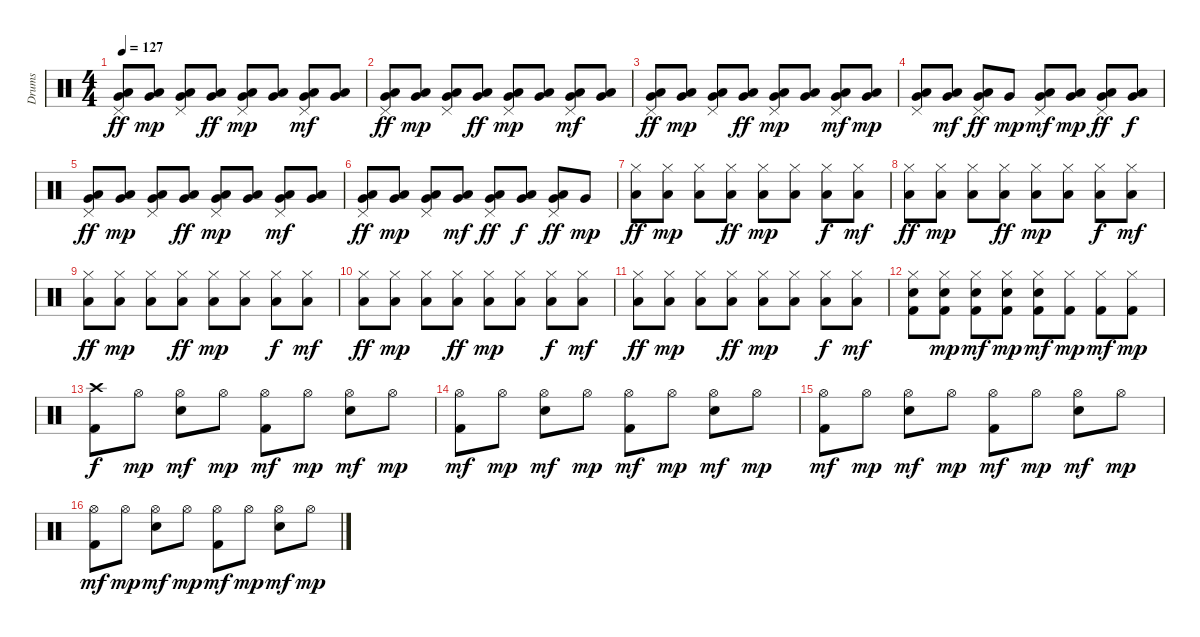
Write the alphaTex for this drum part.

\track ("Drums" "Drums") {instrument percussion}
\staff {score}
\articulation defaults
\ts (4 4)
\tempo 127
\clef neutral
\ks c
("Pedal Hi-Hat (hit)" "Very Low Tom (hit)" "Low Floor Tom (hit)").8{dy ff} ("Very Low Tom (hit)" "Low Floor Tom (hit)").8{dy mp} ("Pedal Hi-Hat (hit)" "Very Low Tom (hit)" "Low Floor Tom (hit)").8 ("Very Low Tom (hit)" "Low Floor Tom (hit)").8{dy ff} ("Pedal Hi-Hat (hit)" "Very Low Tom (hit)" "Low Floor Tom (hit)").8{dy mp} ("Very Low Tom (hit)" "Low Floor Tom (hit)").8 ("Pedal Hi-Hat (hit)" "Very Low Tom (hit)" "Low Floor Tom (hit)").8{dy mf} ("Very Low Tom (hit)" "Low Floor Tom (hit)").8 |
("Pedal Hi-Hat (hit)" "Very Low Tom (hit)" "Low Floor Tom (hit)").8{dy ff} ("Very Low Tom (hit)" "Low Floor Tom (hit)").8{dy mp} ("Pedal Hi-Hat (hit)" "Very Low Tom (hit)" "Low Floor Tom (hit)").8 ("Very Low Tom (hit)" "Low Floor Tom (hit)").8{dy ff} ("Pedal Hi-Hat (hit)" "Very Low Tom (hit)" "Low Floor Tom (hit)").8{dy mp} ("Very Low Tom (hit)" "Low Floor Tom (hit)").8 ("Pedal Hi-Hat (hit)" "Very Low Tom (hit)" "Low Floor Tom (hit)").8{dy mf} ("Very Low Tom (hit)" "Low Floor Tom (hit)").8 |
("Pedal Hi-Hat (hit)" "Very Low Tom (hit)" "Low Floor Tom (hit)").8{dy ff} ("Very Low Tom (hit)" "Low Floor Tom (hit)").8{dy mp} ("Pedal Hi-Hat (hit)" "Very Low Tom (hit)" "Low Floor Tom (hit)").8 ("Very Low Tom (hit)" "Low Floor Tom (hit)").8{dy ff} ("Pedal Hi-Hat (hit)" "Very Low Tom (hit)" "Low Floor Tom (hit)").8{dy mp} ("Very Low Tom (hit)" "Low Floor Tom (hit)").8 ("Pedal Hi-Hat (hit)" "Very Low Tom (hit)" "Low Floor Tom (hit)").8{dy mf} ("Very Low Tom (hit)" "Low Floor Tom (hit)").8{dy mp} |
("Pedal Hi-Hat (hit)" "Very Low Tom (hit)" "Low Floor Tom (hit)").8 ("Very Low Tom (hit)" "Low Floor Tom (hit)").8{dy mf} ("Pedal Hi-Hat (hit)" "Very Low Tom (hit)" "Low Floor Tom (hit)").8{dy ff} "Very Low Tom (hit)".8{dy mp} ("Pedal Hi-Hat (hit)" "Very Low Tom (hit)" "Low Floor Tom (hit)").8{dy mf} ("Very Low Tom (hit)" "Low Floor Tom (hit)").8{dy mp} ("Pedal Hi-Hat (hit)" "Very Low Tom (hit)" "Low Floor Tom (hit)").8{dy ff} ("Very Low Tom (hit)" "Low Floor Tom (hit)").8{dy f} |
("Pedal Hi-Hat (hit)" "Very Low Tom (hit)" "Low Floor Tom (hit)").8{dy ff} ("Very Low Tom (hit)" "Low Floor Tom (hit)").8{dy mp} ("Pedal Hi-Hat (hit)" "Very Low Tom (hit)" "Low Floor Tom (hit)").8 ("Very Low Tom (hit)" "Low Floor Tom (hit)").8{dy ff} ("Pedal Hi-Hat (hit)" "Very Low Tom (hit)" "Low Floor Tom (hit)").8{dy mp} ("Very Low Tom (hit)" "Low Floor Tom (hit)").8 ("Pedal Hi-Hat (hit)" "Very Low Tom (hit)" "Low Floor Tom (hit)").8{dy mf} ("Very Low Tom (hit)" "Low Floor Tom (hit)").8 |
("Pedal Hi-Hat (hit)" "Very Low Tom (hit)" "Low Floor Tom (hit)").8{dy ff} ("Very Low Tom (hit)" "Low Floor Tom (hit)").8{dy mp} ("Pedal Hi-Hat (hit)" "Very Low Tom (hit)" "Low Floor Tom (hit)").8 ("Very Low Tom (hit)" "Low Floor Tom (hit)").8{dy mf} ("Pedal Hi-Hat (hit)" "Very Low Tom (hit)" "Low Floor Tom (hit)").8{dy ff} ("Very Low Tom (hit)" "Low Floor Tom (hit)").8{dy f} ("Pedal Hi-Hat (hit)" "Very Low Tom (hit)" "Low Floor Tom (hit)").8{dy ff} "Very Low Tom (hit)".8{dy mp} |
("Hi-Hat (closed)" "Low Floor Tom (hit)").8{dy ff} ("Hi-Hat (closed)" "Low Floor Tom (hit)").8{dy mp} ("Hi-Hat (closed)" "Low Floor Tom (hit)").8 ("Hi-Hat (closed)" "Low Floor Tom (hit)").8{dy ff} ("Hi-Hat (closed)" "Low Floor Tom (hit)").8{dy mp} ("Hi-Hat (closed)" "Low Floor Tom (hit)").8 ("Hi-Hat (closed)" "Low Floor Tom (hit)").8{dy f} ("Hi-Hat (closed)" "Low Floor Tom (hit)").8{dy mf} |
("Hi-Hat (closed)" "Low Floor Tom (hit)").8{dy ff} ("Hi-Hat (closed)" "Low Floor Tom (hit)").8{dy mp} ("Hi-Hat (closed)" "Low Floor Tom (hit)").8 ("Hi-Hat (closed)" "Low Floor Tom (hit)").8{dy ff} ("Hi-Hat (closed)" "Low Floor Tom (hit)").8{dy mp} ("Hi-Hat (closed)" "Low Floor Tom (hit)").8 ("Hi-Hat (closed)" "Low Floor Tom (hit)").8{dy f} ("Hi-Hat (closed)" "Low Floor Tom (hit)").8{dy mf} |
("Hi-Hat (closed)" "Low Floor Tom (hit)").8{dy ff} ("Hi-Hat (closed)" "Low Floor Tom (hit)").8{dy mp} ("Hi-Hat (closed)" "Low Floor Tom (hit)").8 ("Hi-Hat (closed)" "Low Floor Tom (hit)").8{dy ff} ("Hi-Hat (closed)" "Low Floor Tom (hit)").8{dy mp} ("Hi-Hat (closed)" "Low Floor Tom (hit)").8 ("Hi-Hat (closed)" "Low Floor Tom (hit)").8{dy f} ("Hi-Hat (closed)" "Low Floor Tom (hit)").8{dy mf} |
("Hi-Hat (closed)" "Low Floor Tom (hit)").8{dy ff} ("Hi-Hat (closed)" "Low Floor Tom (hit)").8{dy mp} ("Hi-Hat (closed)" "Low Floor Tom (hit)").8 ("Hi-Hat (closed)" "Low Floor Tom (hit)").8{dy ff} ("Hi-Hat (closed)" "Low Floor Tom (hit)").8{dy mp} ("Hi-Hat (closed)" "Low Floor Tom (hit)").8 ("Hi-Hat (closed)" "Low Floor Tom (hit)").8{dy f} ("Hi-Hat (closed)" "Low Floor Tom (hit)").8{dy mf} |
("Hi-Hat (closed)" "Low Floor Tom (hit)").8{dy ff} ("Hi-Hat (closed)" "Low Floor Tom (hit)").8{dy mp} ("Hi-Hat (closed)" "Low Floor Tom (hit)").8 ("Hi-Hat (closed)" "Low Floor Tom (hit)").8{dy ff} ("Hi-Hat (closed)" "Low Floor Tom (hit)").8{dy mp} ("Hi-Hat (closed)" "Low Floor Tom (hit)").8 ("Hi-Hat (closed)" "Low Floor Tom (hit)").8{dy f} ("Hi-Hat (closed)" "Low Floor Tom (hit)").8{dy mf} |
("Hi-Hat (closed)" "Electric Snare (hit)" "Kick (hit) 2").8 ("Hi-Hat (closed)" "Electric Snare (hit)" "Kick (hit) 2").8{dy mp} ("Hi-Hat (closed)" "Electric Snare (hit)" "Kick (hit) 2").8{dy mf} ("Hi-Hat (closed)" "Electric Snare (hit)" "Kick (hit) 2").8{dy mp} ("Hi-Hat (closed)" "Electric Snare (hit)" "Kick (hit) 2").8{dy mf} ("Hi-Hat (closed)" "Kick (hit) 2").8{dy mp} ("Hi-Hat (closed)" "Kick (hit) 2").8{dy mf} ("Hi-Hat (closed)" "Kick (hit) 2").8{dy mp} |
("Crash high (hit)" "Kick (hit) 2").8{dy f} "Hi-Hat (open)".8{dy mp} ("Hi-Hat (open)" "Electric Snare (hit)").8{dy mf} "Hi-Hat (open)".8{dy mp} ("Hi-Hat (open)" "Kick (hit) 2").8{dy mf} "Hi-Hat (open)".8{dy mp} ("Hi-Hat (open)" "Electric Snare (hit)").8{dy mf} "Hi-Hat (open)".8{dy mp} |
("Hi-Hat (open)" "Kick (hit) 2").8{dy mf} "Hi-Hat (open)".8{dy mp} ("Hi-Hat (open)" "Electric Snare (hit)").8{dy mf} "Hi-Hat (open)".8{dy mp} ("Hi-Hat (open)" "Kick (hit) 2").8{dy mf} "Hi-Hat (open)".8{dy mp} ("Hi-Hat (open)" "Electric Snare (hit)").8{dy mf} "Hi-Hat (open)".8{dy mp} |
("Hi-Hat (open)" "Kick (hit) 2").8{dy mf} "Hi-Hat (open)".8{dy mp} ("Hi-Hat (open)" "Electric Snare (hit)").8{dy mf} "Hi-Hat (open)".8{dy mp} ("Hi-Hat (open)" "Kick (hit) 2").8{dy mf} "Hi-Hat (open)".8{dy mp} ("Hi-Hat (open)" "Electric Snare (hit)").8{dy mf} "Hi-Hat (open)".8{dy mp} |
("Hi-Hat (open)" "Kick (hit) 2").8{dy mf} "Hi-Hat (open)".8{dy mp} ("Hi-Hat (open)" "Electric Snare (hit)").8{dy mf} "Hi-Hat (open)".8{dy mp} ("Hi-Hat (open)" "Kick (hit) 2").8{dy mf} "Hi-Hat (open)".8{dy mp} ("Hi-Hat (open)" "Electric Snare (hit)").8{dy mf} "Hi-Hat (open)".8{dy mp}
